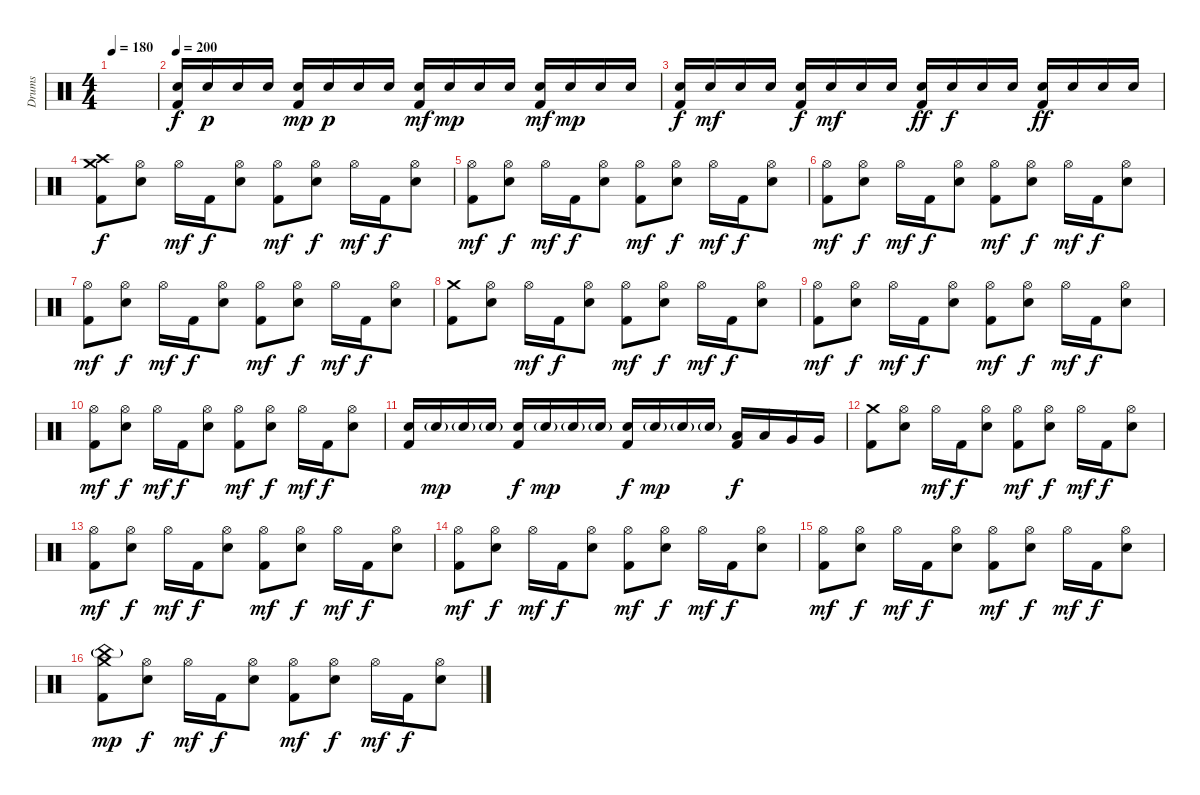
\track ("Drums" "Drums") {instrument percussion}
\staff {score}
\articulation defaults
\ts (4 4)
\tempo 180
\clef neutral
\ks c
|
\tempo 200
("Electric Snare (hit)" "Kick (hit) 2").16 "Electric Snare (hit)".16{dy p} "Electric Snare (hit)".16 "Electric Snare (hit)".16 ("Electric Snare (hit)" "Kick (hit) 2").16{dy mp} "Electric Snare (hit)".16{dy p} "Electric Snare (hit)".16 "Electric Snare (hit)".16 ("Electric Snare (hit)" "Kick (hit) 2").16{dy mf} "Electric Snare (hit)".16{dy mp} "Electric Snare (hit)".16 "Electric Snare (hit)".16 ("Electric Snare (hit)" "Kick (hit) 2").16{dy mf} "Electric Snare (hit)".16{dy mp} "Electric Snare (hit)".16 "Electric Snare (hit)".16 |
("Electric Snare (hit)" "Kick (hit) 2").16{dy f} "Electric Snare (hit)".16{dy mf} "Electric Snare (hit)".16 "Electric Snare (hit)".16 ("Electric Snare (hit)" "Kick (hit) 2").16{dy f} "Electric Snare (hit)".16{dy mf} "Electric Snare (hit)".16 "Electric Snare (hit)".16 ("Electric Snare (hit)" "Kick (hit) 2").16{dy ff} "Electric Snare (hit)".16{dy f} "Electric Snare (hit)".16 "Electric Snare (hit)".16 ("Electric Snare (hit)" "Kick (hit) 2").16{dy ff} "Electric Snare (hit)".16 "Electric Snare (hit)".16 "Electric Snare (hit)".16 |
("Crash medium (hit)" "Crash high (hit)" "Kick (hit) 2").8{dy f} ("Hi-Hat (open)" "Electric Snare (hit)").8 "Hi-Hat (open)".16{dy mf} "Kick (hit) 2".16{dy f} ("Hi-Hat (open)" "Electric Snare (hit)").8 ("Hi-Hat (open)" "Kick (hit) 2").8{dy mf} ("Hi-Hat (open)" "Electric Snare (hit)").8{dy f} "Hi-Hat (open)".16{dy mf} "Kick (hit) 2".16{dy f} ("Hi-Hat (open)" "Electric Snare (hit)").8 |
("Hi-Hat (open)" "Kick (hit) 2").8{dy mf} ("Hi-Hat (open)" "Electric Snare (hit)").8{dy f} "Hi-Hat (open)".16{dy mf} "Kick (hit) 2".16{dy f} ("Hi-Hat (open)" "Electric Snare (hit)").8 ("Hi-Hat (open)" "Kick (hit) 2").8{dy mf} ("Hi-Hat (open)" "Electric Snare (hit)").8{dy f} "Hi-Hat (open)".16{dy mf} "Kick (hit) 2".16{dy f} ("Hi-Hat (open)" "Electric Snare (hit)").8 |
("Hi-Hat (open)" "Kick (hit) 2").8{dy mf} ("Hi-Hat (open)" "Electric Snare (hit)").8{dy f} "Hi-Hat (open)".16{dy mf} "Kick (hit) 2".16{dy f} ("Hi-Hat (open)" "Electric Snare (hit)").8 ("Hi-Hat (open)" "Kick (hit) 2").8{dy mf} ("Hi-Hat (open)" "Electric Snare (hit)").8{dy f} "Hi-Hat (open)".16{dy mf} "Kick (hit) 2".16{dy f} ("Hi-Hat (open)" "Electric Snare (hit)").8 |
("Hi-Hat (open)" "Kick (hit) 2").8{dy mf} ("Hi-Hat (open)" "Electric Snare (hit)").8{dy f} "Hi-Hat (open)".16{dy mf} "Kick (hit) 2".16{dy f} ("Hi-Hat (open)" "Electric Snare (hit)").8 ("Hi-Hat (open)" "Kick (hit) 2").8{dy mf} ("Hi-Hat (open)" "Electric Snare (hit)").8{dy f} "Hi-Hat (open)".16{dy mf} "Kick (hit) 2".16{dy f} ("Hi-Hat (open)" "Electric Snare (hit)").8 |
("Crash medium (hit)" "Kick (hit) 2").8 ("Hi-Hat (open)" "Electric Snare (hit)").8 "Hi-Hat (open)".16{dy mf} "Kick (hit) 2".16{dy f} ("Hi-Hat (open)" "Electric Snare (hit)").8 ("Hi-Hat (open)" "Kick (hit) 2").8{dy mf} ("Hi-Hat (open)" "Electric Snare (hit)").8{dy f} "Hi-Hat (open)".16{dy mf} "Kick (hit) 2".16{dy f} ("Hi-Hat (open)" "Electric Snare (hit)").8 |
("Hi-Hat (open)" "Kick (hit) 2").8{dy mf} ("Hi-Hat (open)" "Electric Snare (hit)").8{dy f} "Hi-Hat (open)".16{dy mf} "Kick (hit) 2".16{dy f} ("Hi-Hat (open)" "Electric Snare (hit)").8 ("Hi-Hat (open)" "Kick (hit) 2").8{dy mf} ("Hi-Hat (open)" "Electric Snare (hit)").8{dy f} "Hi-Hat (open)".16{dy mf} "Kick (hit) 2".16{dy f} ("Hi-Hat (open)" "Electric Snare (hit)").8 |
("Hi-Hat (open)" "Kick (hit) 2").8{dy mf} ("Hi-Hat (open)" "Electric Snare (hit)").8{dy f} "Hi-Hat (open)".16{dy mf} "Kick (hit) 2".16{dy f} ("Hi-Hat (open)" "Electric Snare (hit)").8 ("Hi-Hat (open)" "Kick (hit) 2").8{dy mf} ("Hi-Hat (open)" "Electric Snare (hit)").8{dy f} "Hi-Hat (open)".16{dy mf} "Kick (hit) 2".16{dy f} ("Hi-Hat (open)" "Electric Snare (hit)").8 |
("Electric Snare (hit)" "Kick (hit) 2").16 "Electric Snare (hit)"{g}.16{dy mp} "Electric Snare (hit)"{g}.16 "Electric Snare (hit)"{g}.16 ("Electric Snare (hit)" "Kick (hit) 2").16{dy f} "Electric Snare (hit)"{g}.16{dy mp} "Electric Snare (hit)"{g}.16 "Electric Snare (hit)"{g}.16 ("Electric Snare (hit)" "Kick (hit) 2").16{dy f} "Electric Snare (hit)"{g}.16{dy mp} "Electric Snare (hit)"{g}.16 "Electric Snare (hit)"{g}.16 ("Low Tom (hit)" "Kick (hit) 2").16{dy f} "Low Tom (hit)".16 "Very Low Tom (hit)".16 "Very Low Tom (hit)".16 |
("Crash medium (hit)" "Kick (hit) 2").8 ("Hi-Hat (open)" "Electric Snare (hit)").8 "Hi-Hat (open)".16{dy mf} "Kick (hit) 2".16{dy f} ("Hi-Hat (open)" "Electric Snare (hit)").8 ("Hi-Hat (open)" "Kick (hit) 2").8{dy mf} ("Hi-Hat (open)" "Electric Snare (hit)").8{dy f} "Hi-Hat (open)".16{dy mf} "Kick (hit) 2".16{dy f} ("Hi-Hat (open)" "Electric Snare (hit)").8 |
("Hi-Hat (open)" "Kick (hit) 2").8{dy mf} ("Hi-Hat (open)" "Electric Snare (hit)").8{dy f} "Hi-Hat (open)".16{dy mf} "Kick (hit) 2".16{dy f} ("Hi-Hat (open)" "Electric Snare (hit)").8 ("Hi-Hat (open)" "Kick (hit) 2").8{dy mf} ("Hi-Hat (open)" "Electric Snare (hit)").8{dy f} "Hi-Hat (open)".16{dy mf} "Kick (hit) 2".16{dy f} ("Hi-Hat (open)" "Electric Snare (hit)").8 |
("Hi-Hat (open)" "Kick (hit) 2").8{dy mf} ("Hi-Hat (open)" "Electric Snare (hit)").8{dy f} "Hi-Hat (open)".16{dy mf} "Kick (hit) 2".16{dy f} ("Hi-Hat (open)" "Electric Snare (hit)").8 ("Hi-Hat (open)" "Kick (hit) 2").8{dy mf} ("Hi-Hat (open)" "Electric Snare (hit)").8{dy f} "Hi-Hat (open)".16{dy mf} "Kick (hit) 2".16{dy f} ("Hi-Hat (open)" "Electric Snare (hit)").8 |
("Hi-Hat (open)" "Kick (hit) 2").8{dy mf} ("Hi-Hat (open)" "Electric Snare (hit)").8{dy f} "Hi-Hat (open)".16{dy mf} "Kick (hit) 2".16{dy f} ("Hi-Hat (open)" "Electric Snare (hit)").8 ("Hi-Hat (open)" "Kick (hit) 2").8{dy mf} ("Hi-Hat (open)" "Electric Snare (hit)").8{dy f} "Hi-Hat (open)".16{dy mf} "Kick (hit) 2".16{dy f} ("Hi-Hat (open)" "Electric Snare (hit)").8 |
("China (hit)"{g} "Crash medium (hit)" "Kick (hit) 2").8{dy mp} ("Hi-Hat (open)" "Electric Snare (hit)").8{dy f} "Hi-Hat (open)".16{dy mf} "Kick (hit) 2".16{dy f} ("Hi-Hat (open)" "Electric Snare (hit)").8 ("Hi-Hat (open)" "Kick (hit) 2").8{dy mf} ("Hi-Hat (open)" "Electric Snare (hit)").8{dy f} "Hi-Hat (open)".16{dy mf} "Kick (hit) 2".16{dy f} ("Hi-Hat (open)" "Electric Snare (hit)").8
